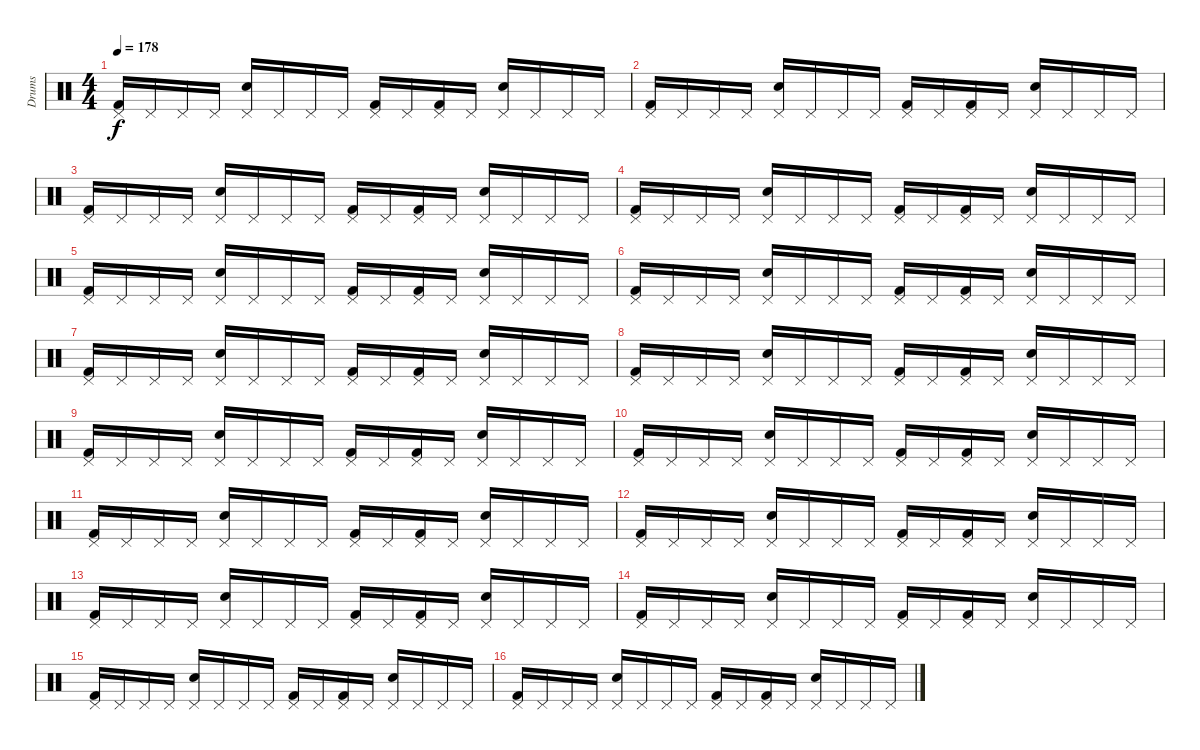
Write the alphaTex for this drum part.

\track ("Drums" "Drums") {instrument percussion}
\staff {score}
\articulation defaults
\ts (4 4)
\tempo 178
\clef neutral
\ks c
("Kick (hit) 2" "Pedal Hi-Hat (hit)").16{dy f} "Pedal Hi-Hat (hit)".16 "Pedal Hi-Hat (hit)".16 "Pedal Hi-Hat (hit)".16 ("Snare (hit) 2" "Pedal Hi-Hat (hit)").16 "Pedal Hi-Hat (hit)".16 "Pedal Hi-Hat (hit)".16 "Pedal Hi-Hat (hit)".16 ("Kick (hit) 2" "Pedal Hi-Hat (hit)").16 "Pedal Hi-Hat (hit)".16 ("Kick (hit) 2" "Pedal Hi-Hat (hit)").16 "Pedal Hi-Hat (hit)".16 ("Snare (hit) 2" "Pedal Hi-Hat (hit)").16 "Pedal Hi-Hat (hit)".16 "Pedal Hi-Hat (hit)".16 "Pedal Hi-Hat (hit)".16 |
("Kick (hit) 2" "Pedal Hi-Hat (hit)").16 "Pedal Hi-Hat (hit)".16 "Pedal Hi-Hat (hit)".16 "Pedal Hi-Hat (hit)".16 ("Snare (hit) 2" "Pedal Hi-Hat (hit)").16 "Pedal Hi-Hat (hit)".16 "Pedal Hi-Hat (hit)".16 "Pedal Hi-Hat (hit)".16 ("Kick (hit) 2" "Pedal Hi-Hat (hit)").16 "Pedal Hi-Hat (hit)".16 ("Kick (hit) 2" "Pedal Hi-Hat (hit)").16 "Pedal Hi-Hat (hit)".16 ("Snare (hit) 2" "Pedal Hi-Hat (hit)").16 "Pedal Hi-Hat (hit)".16 "Pedal Hi-Hat (hit)".16 "Pedal Hi-Hat (hit)".16 |
("Kick (hit) 2" "Pedal Hi-Hat (hit)").16 "Pedal Hi-Hat (hit)".16 "Pedal Hi-Hat (hit)".16 "Pedal Hi-Hat (hit)".16 ("Snare (hit) 2" "Pedal Hi-Hat (hit)").16 "Pedal Hi-Hat (hit)".16 "Pedal Hi-Hat (hit)".16 "Pedal Hi-Hat (hit)".16 ("Kick (hit) 2" "Pedal Hi-Hat (hit)").16 "Pedal Hi-Hat (hit)".16 ("Kick (hit) 2" "Pedal Hi-Hat (hit)").16 "Pedal Hi-Hat (hit)".16 ("Snare (hit) 2" "Pedal Hi-Hat (hit)").16 "Pedal Hi-Hat (hit)".16 "Pedal Hi-Hat (hit)".16 "Pedal Hi-Hat (hit)".16 |
("Kick (hit) 2" "Pedal Hi-Hat (hit)").16 "Pedal Hi-Hat (hit)".16 "Pedal Hi-Hat (hit)".16 "Pedal Hi-Hat (hit)".16 ("Snare (hit) 2" "Pedal Hi-Hat (hit)").16 "Pedal Hi-Hat (hit)".16 "Pedal Hi-Hat (hit)".16 "Pedal Hi-Hat (hit)".16 ("Kick (hit) 2" "Pedal Hi-Hat (hit)").16 "Pedal Hi-Hat (hit)".16 ("Kick (hit) 2" "Pedal Hi-Hat (hit)").16 "Pedal Hi-Hat (hit)".16 ("Snare (hit) 2" "Pedal Hi-Hat (hit)").16 "Pedal Hi-Hat (hit)".16 "Pedal Hi-Hat (hit)".16 "Pedal Hi-Hat (hit)".16 |
("Kick (hit) 2" "Pedal Hi-Hat (hit)").16 "Pedal Hi-Hat (hit)".16 "Pedal Hi-Hat (hit)".16 "Pedal Hi-Hat (hit)".16 ("Snare (hit) 2" "Pedal Hi-Hat (hit)").16 "Pedal Hi-Hat (hit)".16 "Pedal Hi-Hat (hit)".16 "Pedal Hi-Hat (hit)".16 ("Kick (hit) 2" "Pedal Hi-Hat (hit)").16 "Pedal Hi-Hat (hit)".16 ("Kick (hit) 2" "Pedal Hi-Hat (hit)").16 "Pedal Hi-Hat (hit)".16 ("Snare (hit) 2" "Pedal Hi-Hat (hit)").16 "Pedal Hi-Hat (hit)".16 "Pedal Hi-Hat (hit)".16 "Pedal Hi-Hat (hit)".16 |
("Kick (hit) 2" "Pedal Hi-Hat (hit)").16 "Pedal Hi-Hat (hit)".16 "Pedal Hi-Hat (hit)".16 "Pedal Hi-Hat (hit)".16 ("Snare (hit) 2" "Pedal Hi-Hat (hit)").16 "Pedal Hi-Hat (hit)".16 "Pedal Hi-Hat (hit)".16 "Pedal Hi-Hat (hit)".16 ("Kick (hit) 2" "Pedal Hi-Hat (hit)").16 "Pedal Hi-Hat (hit)".16 ("Kick (hit) 2" "Pedal Hi-Hat (hit)").16 "Pedal Hi-Hat (hit)".16 ("Snare (hit) 2" "Pedal Hi-Hat (hit)").16 "Pedal Hi-Hat (hit)".16 "Pedal Hi-Hat (hit)".16 "Pedal Hi-Hat (hit)".16 |
("Kick (hit) 2" "Pedal Hi-Hat (hit)").16 "Pedal Hi-Hat (hit)".16 "Pedal Hi-Hat (hit)".16 "Pedal Hi-Hat (hit)".16 ("Snare (hit) 2" "Pedal Hi-Hat (hit)").16 "Pedal Hi-Hat (hit)".16 "Pedal Hi-Hat (hit)".16 "Pedal Hi-Hat (hit)".16 ("Kick (hit) 2" "Pedal Hi-Hat (hit)").16 "Pedal Hi-Hat (hit)".16 ("Kick (hit) 2" "Pedal Hi-Hat (hit)").16 "Pedal Hi-Hat (hit)".16 ("Snare (hit) 2" "Pedal Hi-Hat (hit)").16 "Pedal Hi-Hat (hit)".16 "Pedal Hi-Hat (hit)".16 "Pedal Hi-Hat (hit)".16 |
("Kick (hit) 2" "Pedal Hi-Hat (hit)").16 "Pedal Hi-Hat (hit)".16 "Pedal Hi-Hat (hit)".16 "Pedal Hi-Hat (hit)".16 ("Snare (hit) 2" "Pedal Hi-Hat (hit)").16 "Pedal Hi-Hat (hit)".16 "Pedal Hi-Hat (hit)".16 "Pedal Hi-Hat (hit)".16 ("Kick (hit) 2" "Pedal Hi-Hat (hit)").16 "Pedal Hi-Hat (hit)".16 ("Kick (hit) 2" "Pedal Hi-Hat (hit)").16 "Pedal Hi-Hat (hit)".16 ("Snare (hit) 2" "Pedal Hi-Hat (hit)").16 "Pedal Hi-Hat (hit)".16 "Pedal Hi-Hat (hit)".16 "Pedal Hi-Hat (hit)".16 |
("Kick (hit) 2" "Pedal Hi-Hat (hit)").16 "Pedal Hi-Hat (hit)".16 "Pedal Hi-Hat (hit)".16 "Pedal Hi-Hat (hit)".16 ("Snare (hit) 2" "Pedal Hi-Hat (hit)").16 "Pedal Hi-Hat (hit)".16 "Pedal Hi-Hat (hit)".16 "Pedal Hi-Hat (hit)".16 ("Kick (hit) 2" "Pedal Hi-Hat (hit)").16 "Pedal Hi-Hat (hit)".16 ("Kick (hit) 2" "Pedal Hi-Hat (hit)").16 "Pedal Hi-Hat (hit)".16 ("Snare (hit) 2" "Pedal Hi-Hat (hit)").16 "Pedal Hi-Hat (hit)".16 "Pedal Hi-Hat (hit)".16 "Pedal Hi-Hat (hit)".16 |
("Kick (hit) 2" "Pedal Hi-Hat (hit)").16 "Pedal Hi-Hat (hit)".16 "Pedal Hi-Hat (hit)".16 "Pedal Hi-Hat (hit)".16 ("Snare (hit) 2" "Pedal Hi-Hat (hit)").16 "Pedal Hi-Hat (hit)".16 "Pedal Hi-Hat (hit)".16 "Pedal Hi-Hat (hit)".16 ("Kick (hit) 2" "Pedal Hi-Hat (hit)").16 "Pedal Hi-Hat (hit)".16 ("Kick (hit) 2" "Pedal Hi-Hat (hit)").16 "Pedal Hi-Hat (hit)".16 ("Snare (hit) 2" "Pedal Hi-Hat (hit)").16 "Pedal Hi-Hat (hit)".16 "Pedal Hi-Hat (hit)".16 "Pedal Hi-Hat (hit)".16 |
("Kick (hit) 2" "Pedal Hi-Hat (hit)").16 "Pedal Hi-Hat (hit)".16 "Pedal Hi-Hat (hit)".16 "Pedal Hi-Hat (hit)".16 ("Snare (hit) 2" "Pedal Hi-Hat (hit)").16 "Pedal Hi-Hat (hit)".16 "Pedal Hi-Hat (hit)".16 "Pedal Hi-Hat (hit)".16 ("Kick (hit) 2" "Pedal Hi-Hat (hit)").16 "Pedal Hi-Hat (hit)".16 ("Kick (hit) 2" "Pedal Hi-Hat (hit)").16 "Pedal Hi-Hat (hit)".16 ("Snare (hit) 2" "Pedal Hi-Hat (hit)").16 "Pedal Hi-Hat (hit)".16 "Pedal Hi-Hat (hit)".16 "Pedal Hi-Hat (hit)".16 |
("Kick (hit) 2" "Pedal Hi-Hat (hit)").16 "Pedal Hi-Hat (hit)".16 "Pedal Hi-Hat (hit)".16 "Pedal Hi-Hat (hit)".16 ("Snare (hit) 2" "Pedal Hi-Hat (hit)").16 "Pedal Hi-Hat (hit)".16 "Pedal Hi-Hat (hit)".16 "Pedal Hi-Hat (hit)".16 ("Kick (hit) 2" "Pedal Hi-Hat (hit)").16 "Pedal Hi-Hat (hit)".16 ("Kick (hit) 2" "Pedal Hi-Hat (hit)").16 "Pedal Hi-Hat (hit)".16 ("Snare (hit) 2" "Pedal Hi-Hat (hit)").16 "Pedal Hi-Hat (hit)".16 "Pedal Hi-Hat (hit)".16 "Pedal Hi-Hat (hit)".16 |
("Kick (hit) 2" "Pedal Hi-Hat (hit)").16 "Pedal Hi-Hat (hit)".16 "Pedal Hi-Hat (hit)".16 "Pedal Hi-Hat (hit)".16 ("Snare (hit) 2" "Pedal Hi-Hat (hit)").16 "Pedal Hi-Hat (hit)".16 "Pedal Hi-Hat (hit)".16 "Pedal Hi-Hat (hit)".16 ("Kick (hit) 2" "Pedal Hi-Hat (hit)").16 "Pedal Hi-Hat (hit)".16 ("Kick (hit) 2" "Pedal Hi-Hat (hit)").16 "Pedal Hi-Hat (hit)".16 ("Snare (hit) 2" "Pedal Hi-Hat (hit)").16 "Pedal Hi-Hat (hit)".16 "Pedal Hi-Hat (hit)".16 "Pedal Hi-Hat (hit)".16 |
("Kick (hit) 2" "Pedal Hi-Hat (hit)").16 "Pedal Hi-Hat (hit)".16 "Pedal Hi-Hat (hit)".16 "Pedal Hi-Hat (hit)".16 ("Snare (hit) 2" "Pedal Hi-Hat (hit)").16 "Pedal Hi-Hat (hit)".16 "Pedal Hi-Hat (hit)".16 "Pedal Hi-Hat (hit)".16 ("Kick (hit) 2" "Pedal Hi-Hat (hit)").16 "Pedal Hi-Hat (hit)".16 ("Kick (hit) 2" "Pedal Hi-Hat (hit)").16 "Pedal Hi-Hat (hit)".16 ("Snare (hit) 2" "Pedal Hi-Hat (hit)").16 "Pedal Hi-Hat (hit)".16 "Pedal Hi-Hat (hit)".16 "Pedal Hi-Hat (hit)".16 |
("Kick (hit) 2" "Pedal Hi-Hat (hit)").16 "Pedal Hi-Hat (hit)".16 "Pedal Hi-Hat (hit)".16 "Pedal Hi-Hat (hit)".16 ("Snare (hit) 2" "Pedal Hi-Hat (hit)").16 "Pedal Hi-Hat (hit)".16 "Pedal Hi-Hat (hit)".16 "Pedal Hi-Hat (hit)".16 ("Kick (hit) 2" "Pedal Hi-Hat (hit)").16 "Pedal Hi-Hat (hit)".16 ("Kick (hit) 2" "Pedal Hi-Hat (hit)").16 "Pedal Hi-Hat (hit)".16 ("Snare (hit) 2" "Pedal Hi-Hat (hit)").16 "Pedal Hi-Hat (hit)".16 "Pedal Hi-Hat (hit)".16 "Pedal Hi-Hat (hit)".16 |
("Kick (hit) 2" "Pedal Hi-Hat (hit)").16 "Pedal Hi-Hat (hit)".16 "Pedal Hi-Hat (hit)".16 "Pedal Hi-Hat (hit)".16 ("Snare (hit) 2" "Pedal Hi-Hat (hit)").16 "Pedal Hi-Hat (hit)".16 "Pedal Hi-Hat (hit)".16 "Pedal Hi-Hat (hit)".16 ("Kick (hit) 2" "Pedal Hi-Hat (hit)").16 "Pedal Hi-Hat (hit)".16 ("Kick (hit) 2" "Pedal Hi-Hat (hit)").16 "Pedal Hi-Hat (hit)".16 ("Snare (hit) 2" "Pedal Hi-Hat (hit)").16 "Pedal Hi-Hat (hit)".16 "Pedal Hi-Hat (hit)".16 "Pedal Hi-Hat (hit)".16
